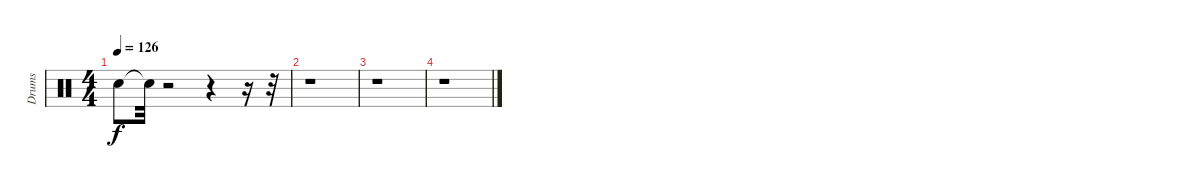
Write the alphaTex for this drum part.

\track ("Drums" "Drums") {instrument percussion}
\staff {score}
\articulation defaults
\ts (4 4)
\tempo 126
\clef neutral
\ks c "Snare (hit)"{t}.8{dy f} "Snare (hit)"{t}.32
r.2 r.4 r.16 r.32 |
r.1 |
r.1 |
r.1
